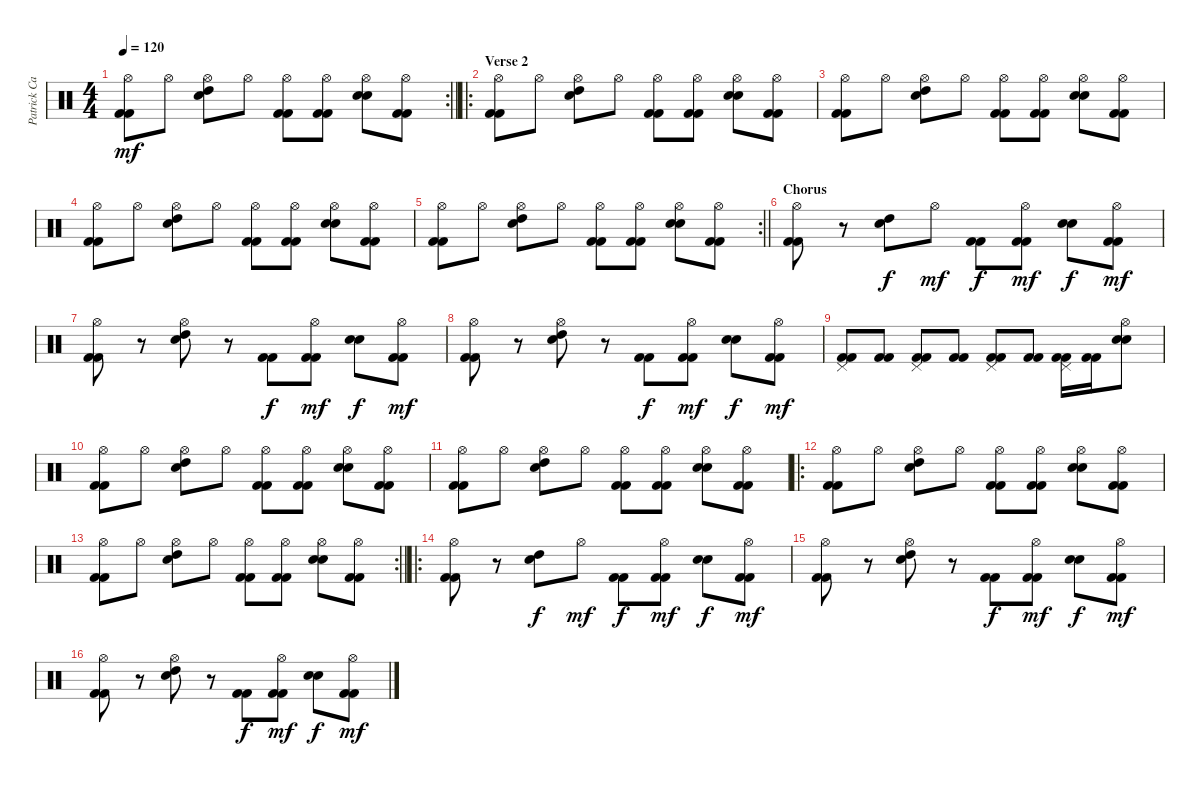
\track ("Patrick Carney" "Patrick Ca") {instrument percussion}
\staff {score}
\articulation defaults
\rc 2
\ts (4 4)
\tempo 120
\clef neutral
\barLineRight lightlight
\ks c
("Hi-Hat (open)" "Kick (hit) 2" "Kick (hit) 2").8{dy mf} "Hi-Hat (open)".8 ("Hi-Hat (open)" "Electric Snare (hit)" "High Tom (hit)").8 "Hi-Hat (open)".8 ("Hi-Hat (open)" "Kick (hit) 2" "Kick (hit) 2").8 ("Hi-Hat (open)" "Kick (hit) 2" "Kick (hit) 2").8 ("Hi-Hat (open)" "Electric Snare (hit)" "Snare (hit) 2").8 ("Hi-Hat (open)" "Kick (hit) 2" "Kick (hit) 2").8 |
\ro
\section ("" "Verse 2")
("Hi-Hat (open)" "Kick (hit) 2" "Kick (hit) 2").8 "Hi-Hat (open)".8 ("Hi-Hat (open)" "Electric Snare (hit)" "High Tom (hit)").8 "Hi-Hat (open)".8 ("Hi-Hat (open)" "Kick (hit) 2" "Kick (hit) 2").8 ("Hi-Hat (open)" "Kick (hit) 2" "Kick (hit) 2").8 ("Hi-Hat (open)" "Electric Snare (hit)" "Snare (hit) 2").8 ("Hi-Hat (open)" "Kick (hit) 2" "Kick (hit) 2").8 |
("Hi-Hat (open)" "Kick (hit) 2" "Kick (hit) 2").8 "Hi-Hat (open)".8 ("Hi-Hat (open)" "Electric Snare (hit)" "High Tom (hit)").8 "Hi-Hat (open)".8 ("Hi-Hat (open)" "Kick (hit) 2" "Kick (hit) 2").8 ("Hi-Hat (open)" "Kick (hit) 2" "Kick (hit) 2").8 ("Hi-Hat (open)" "Electric Snare (hit)" "Snare (hit) 2").8 ("Hi-Hat (open)" "Kick (hit) 2" "Kick (hit) 2").8 |
("Hi-Hat (open)" "Kick (hit) 2" "Kick (hit) 2").8 "Hi-Hat (open)".8 ("Hi-Hat (open)" "Electric Snare (hit)" "High Tom (hit)").8 "Hi-Hat (open)".8 ("Hi-Hat (open)" "Kick (hit) 2" "Kick (hit) 2").8 ("Hi-Hat (open)" "Kick (hit) 2" "Kick (hit) 2").8 ("Hi-Hat (open)" "Electric Snare (hit)" "Snare (hit) 2").8 ("Hi-Hat (open)" "Kick (hit) 2" "Kick (hit) 2").8 |
\rc 2
\barLineRight lightlight
("Hi-Hat (open)" "Kick (hit) 2" "Kick (hit) 2").8 "Hi-Hat (open)".8 ("Hi-Hat (open)" "Electric Snare (hit)" "High Tom (hit)").8 "Hi-Hat (open)".8 ("Hi-Hat (open)" "Kick (hit) 2" "Kick (hit) 2").8 ("Hi-Hat (open)" "Kick (hit) 2" "Kick (hit) 2").8 ("Hi-Hat (open)" "Electric Snare (hit)" "Snare (hit) 2").8 ("Hi-Hat (open)" "Kick (hit) 2" "Kick (hit) 2").8 |
\section ("" "Chorus")
("Hi-Hat (open)" "Kick (hit) 2" "Kick (hit) 2").8 r.8 ("Electric Snare (hit)" "High Tom (hit)").8{dy f} "Hi-Hat (open)".8{dy mf} ("Kick (hit) 2" "Kick (hit) 2").8{dy f} ("Hi-Hat (open)" "Kick (hit) 2" "Kick (hit) 2").8{dy mf} ("Electric Snare (hit)" "Snare (hit) 2").8{dy f} ("Hi-Hat (open)" "Kick (hit) 2" "Kick (hit) 2").8{dy mf} |
("Hi-Hat (open)" "Kick (hit) 2" "Kick (hit) 2").8 r.8 ("Hi-Hat (open)" "Electric Snare (hit)" "High Tom (hit)").8 r.8 ("Kick (hit) 2" "Kick (hit) 2").8{dy f} ("Hi-Hat (open)" "Kick (hit) 2" "Kick (hit) 2").8{dy mf} ("Electric Snare (hit)" "Snare (hit) 2").8{dy f} ("Hi-Hat (open)" "Kick (hit) 2" "Kick (hit) 2").8{dy mf} |
("Hi-Hat (open)" "Kick (hit) 2" "Kick (hit) 2").8 r.8 ("Hi-Hat (open)" "Electric Snare (hit)" "High Tom (hit)").8 r.8 ("Kick (hit) 2" "Kick (hit) 2").8{dy f} ("Hi-Hat (open)" "Kick (hit) 2" "Kick (hit) 2").8{dy mf} ("Electric Snare (hit)" "Snare (hit) 2").8{dy f} ("Hi-Hat (open)" "Kick (hit) 2" "Kick (hit) 2").8{dy mf} |
("Pedal Hi-Hat (hit)" "Kick (hit) 2" "Kick (hit) 2").8 ("Kick (hit) 2" "Kick (hit) 2").8 ("Pedal Hi-Hat (hit)" "Kick (hit) 2" "Kick (hit) 2").8 ("Kick (hit) 2" "Kick (hit) 2").8 ("Pedal Hi-Hat (hit)" "Kick (hit) 2" "Kick (hit) 2").8 ("Kick (hit) 2" "Kick (hit) 2").8 ("Pedal Hi-Hat (hit)" "Kick (hit) 2" "Kick (hit) 2").16 ("Kick (hit) 2" "Kick (hit) 2").16 ("Hi-Hat (open)" "Electric Snare (hit)" "Snare (hit) 2").8 |
("Hi-Hat (open)" "Kick (hit) 2" "Kick (hit) 2").8 "Hi-Hat (open)".8 ("Hi-Hat (open)" "Electric Snare (hit)" "High Tom (hit)").8 "Hi-Hat (open)".8 ("Hi-Hat (open)" "Kick (hit) 2" "Kick (hit) 2").8 ("Hi-Hat (open)" "Kick (hit) 2" "Kick (hit) 2").8 ("Hi-Hat (open)" "Electric Snare (hit)" "Snare (hit) 2").8 ("Hi-Hat (open)" "Kick (hit) 2" "Kick (hit) 2").8 |
("Hi-Hat (open)" "Kick (hit) 2" "Kick (hit) 2").8 "Hi-Hat (open)".8 ("Hi-Hat (open)" "Electric Snare (hit)" "High Tom (hit)").8 "Hi-Hat (open)".8 ("Hi-Hat (open)" "Kick (hit) 2" "Kick (hit) 2").8 ("Hi-Hat (open)" "Kick (hit) 2" "Kick (hit) 2").8 ("Hi-Hat (open)" "Electric Snare (hit)" "Snare (hit) 2").8 ("Hi-Hat (open)" "Kick (hit) 2" "Kick (hit) 2").8 |
\ro
("Hi-Hat (open)" "Kick (hit) 2" "Kick (hit) 2").8 "Hi-Hat (open)".8 ("Hi-Hat (open)" "Electric Snare (hit)" "High Tom (hit)").8 "Hi-Hat (open)".8 ("Hi-Hat (open)" "Kick (hit) 2" "Kick (hit) 2").8 ("Hi-Hat (open)" "Kick (hit) 2" "Kick (hit) 2").8 ("Hi-Hat (open)" "Electric Snare (hit)" "Snare (hit) 2").8 ("Hi-Hat (open)" "Kick (hit) 2" "Kick (hit) 2").8 |
\rc 2
\barLineRight lightlight
("Hi-Hat (open)" "Kick (hit) 2" "Kick (hit) 2").8 "Hi-Hat (open)".8 ("Hi-Hat (open)" "Electric Snare (hit)" "High Tom (hit)").8 "Hi-Hat (open)".8 ("Hi-Hat (open)" "Kick (hit) 2" "Kick (hit) 2").8 ("Hi-Hat (open)" "Kick (hit) 2" "Kick (hit) 2").8 ("Hi-Hat (open)" "Electric Snare (hit)" "Snare (hit) 2").8 ("Hi-Hat (open)" "Kick (hit) 2" "Kick (hit) 2").8 |
\ro
("Hi-Hat (open)" "Kick (hit) 2" "Kick (hit) 2").8 r.8 ("Electric Snare (hit)" "High Tom (hit)").8{dy f} "Hi-Hat (open)".8{dy mf} ("Kick (hit) 2" "Kick (hit) 2").8{dy f} ("Hi-Hat (open)" "Kick (hit) 2" "Kick (hit) 2").8{dy mf} ("Electric Snare (hit)" "Snare (hit) 2").8{dy f} ("Hi-Hat (open)" "Kick (hit) 2" "Kick (hit) 2").8{dy mf} |
("Hi-Hat (open)" "Kick (hit) 2" "Kick (hit) 2").8 r.8 ("Hi-Hat (open)" "Electric Snare (hit)" "High Tom (hit)").8 r.8 ("Kick (hit) 2" "Kick (hit) 2").8{dy f} ("Hi-Hat (open)" "Kick (hit) 2" "Kick (hit) 2").8{dy mf} ("Electric Snare (hit)" "Snare (hit) 2").8{dy f} ("Hi-Hat (open)" "Kick (hit) 2" "Kick (hit) 2").8{dy mf} |
("Hi-Hat (open)" "Kick (hit) 2" "Kick (hit) 2").8 r.8 ("Hi-Hat (open)" "Electric Snare (hit)" "High Tom (hit)").8 r.8 ("Kick (hit) 2" "Kick (hit) 2").8{dy f} ("Hi-Hat (open)" "Kick (hit) 2" "Kick (hit) 2").8{dy mf} ("Electric Snare (hit)" "Snare (hit) 2").8{dy f} ("Hi-Hat (open)" "Kick (hit) 2" "Kick (hit) 2").8{dy mf}
